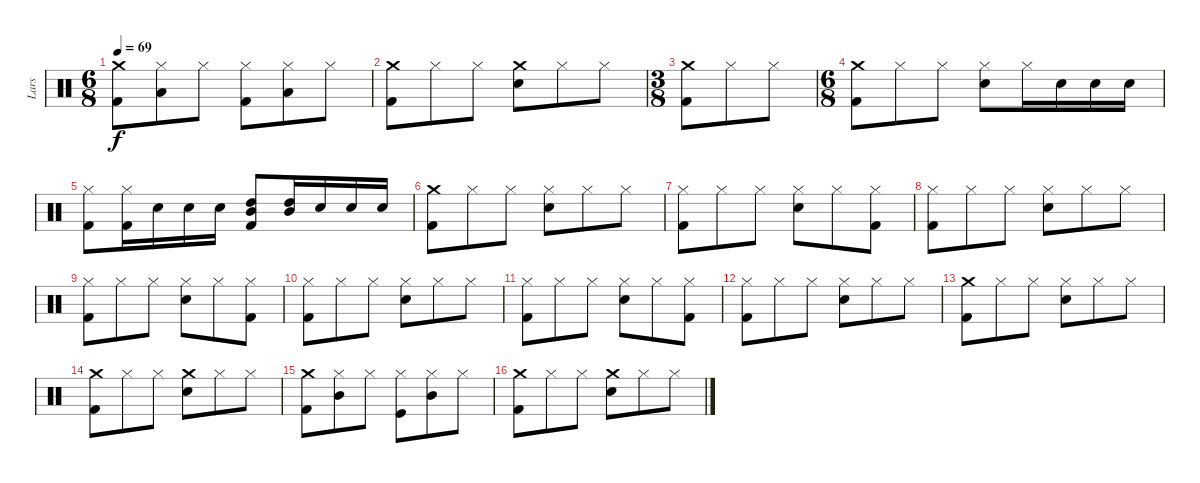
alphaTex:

\track ("Lars" "Lars") {instrument percussion}
\staff {score}
\articulation defaults
\ts (6 8)
\tempo 69
\clef neutral
\ks c
("Kick (hit) 2" "Crash medium (hit)").8{dy f} ("Low Tom (hit)" "Hi-Hat (closed)").8 "Hi-Hat (closed)".8 ("Kick (hit) 2" "Hi-Hat (closed)").8 ("Hi-Hat (closed)" "Low Tom (hit)").8 "Hi-Hat (closed)".8 |
("Kick (hit) 2" "Crash medium (hit)").8 "Hi-Hat (closed)".8 "Hi-Hat (closed)".8 ("Crash medium (hit)" "Snare (hit) 2").8 "Hi-Hat (closed)".8 "Hi-Hat (closed)".8 |
\ts (3 8)
("Crash medium (hit)" "Kick (hit) 2").8 "Hi-Hat (closed)".8 "Hi-Hat (closed)".8 |
\ts (6 8)
("Kick (hit) 2" "Crash medium (hit)").8 "Hi-Hat (closed)".8 "Hi-Hat (closed)".8 ("Snare (hit) 2" "Hi-Hat (closed)").8 "Hi-Hat (closed)".16 "Snare (hit) 2".16 "Snare (hit) 2".16 "Snare (hit) 2".16 |
("Kick (hit) 2" "Hi-Hat (closed)").8 ("Hi-Hat (closed)" "Kick (hit) 2").16 "Snare (hit) 2".16 "Snare (hit) 2".16 "Snare (hit) 2".16 ("High Tom (hit)" "Mid Tom (hit)" "Kick (hit) 2").8 ("High Tom (hit)" "Mid Tom (hit)").16 "Snare (hit) 2".16 "Snare (hit) 2".16 "Snare (hit) 2".16 |
("Kick (hit) 2" "Crash medium (hit)").8 "Hi-Hat (closed)".8 "Hi-Hat (closed)".8 ("Snare (hit) 2" "Hi-Hat (closed)").8 "Hi-Hat (closed)".8 "Hi-Hat (closed)".8 |
("Kick (hit) 2" "Hi-Hat (closed)").8 "Hi-Hat (closed)".8 "Hi-Hat (closed)".8 ("Snare (hit) 2" "Hi-Hat (closed)").8 "Hi-Hat (closed)".8 ("Kick (hit) 2" "Hi-Hat (closed)").8 |
("Hi-Hat (closed)" "Kick (hit) 2").8 "Hi-Hat (closed)".8 "Hi-Hat (closed)".8 ("Snare (hit) 2" "Hi-Hat (closed)").8 "Hi-Hat (closed)".8 "Hi-Hat (closed)".8 |
("Kick (hit) 2" "Hi-Hat (closed)").8 "Hi-Hat (closed)".8 "Hi-Hat (closed)".8 ("Snare (hit) 2" "Hi-Hat (closed)").8 "Hi-Hat (closed)".8 ("Kick (hit) 2" "Hi-Hat (closed)").8 |
("Kick (hit) 2" "Hi-Hat (closed)").8 "Hi-Hat (closed)".8 "Hi-Hat (closed)".8 ("Snare (hit) 2" "Hi-Hat (closed)").8 "Hi-Hat (closed)".8 "Hi-Hat (closed)".8 |
("Kick (hit) 2" "Hi-Hat (closed)").8 "Hi-Hat (closed)".8 "Hi-Hat (closed)".8 ("Snare (hit) 2" "Hi-Hat (closed)").8 "Hi-Hat (closed)".8 ("Kick (hit) 2" "Hi-Hat (closed)").8 |
("Kick (hit) 2" "Hi-Hat (closed)").8 "Hi-Hat (closed)".8 "Hi-Hat (closed)".8 ("Snare (hit) 2" "Hi-Hat (closed)").8 "Hi-Hat (closed)".8 "Hi-Hat (closed)".8 |
("Kick (hit) 2" "Crash medium (hit)").8 "Hi-Hat (closed)".8 "Hi-Hat (closed)".8 ("Snare (hit) 2" "Hi-Hat (closed)").8 "Hi-Hat (closed)".8 "Hi-Hat (closed)".8 |
("Kick (hit) 2" "Crash medium (hit)").8 "Hi-Hat (closed)".8 "Hi-Hat (closed)".8 ("Snare (hit) 2" "Crash medium (hit)").8 "Hi-Hat (closed)".8 "Hi-Hat (closed)".8 |
("Kick (hit) 2" "Crash medium (hit)").8 ("Mid Tom (hit)" "Hi-Hat (closed)").8 "Hi-Hat (closed)".8 ("Kick (hit)" "Hi-Hat (closed)").8 ("Mid Tom (hit)" "Hi-Hat (closed)").8 "Hi-Hat (closed)".8 |
("Kick (hit) 2" "Crash medium (hit)").8 "Hi-Hat (closed)".8 "Hi-Hat (closed)".8 ("Snare (hit) 2" "Crash medium (hit)").8 "Hi-Hat (closed)".8 "Hi-Hat (closed)".8
